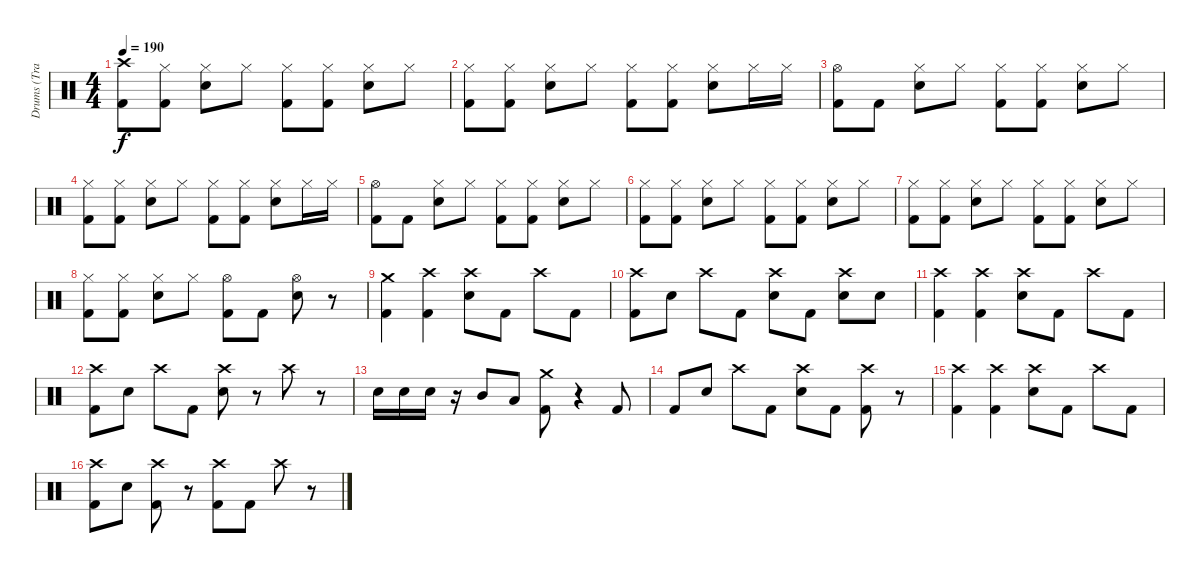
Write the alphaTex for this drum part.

\track ("Drums (Travis)" "Drums (Tra") {instrument percussion}
\staff {score}
\articulation defaults
\ts (4 4)
\tempo 190
\clef neutral
\ks c
("Crash high (hit)" "Kick (hit) 2").8{dy f} ("Hi-Hat (closed)" "Kick (hit) 2").8 ("Hi-Hat (closed)" "Electric Snare (hit)").8 "Hi-Hat (closed)".8 ("Hi-Hat (closed)" "Kick (hit) 2").8 ("Hi-Hat (closed)" "Kick (hit) 2").8 ("Hi-Hat (closed)" "Electric Snare (hit)").8 "Hi-Hat (closed)".8 |
("Hi-Hat (closed)" "Kick (hit) 2").8 ("Hi-Hat (closed)" "Kick (hit) 2").8 ("Hi-Hat (closed)" "Electric Snare (hit)").8 "Hi-Hat (closed)".8 ("Hi-Hat (closed)" "Kick (hit) 2").8 ("Hi-Hat (closed)" "Kick (hit) 2").8 ("Hi-Hat (closed)" "Electric Snare (hit)").8 "Hi-Hat (closed)".16 "Hi-Hat (closed)".16 |
("Hi-Hat (open)" "Kick (hit) 2").8 "Kick (hit) 2".8 ("Hi-Hat (closed)" "Electric Snare (hit)").8 "Hi-Hat (closed)".8 ("Hi-Hat (closed)" "Kick (hit) 2").8 ("Hi-Hat (closed)" "Kick (hit) 2").8 ("Hi-Hat (closed)" "Electric Snare (hit)").8 "Hi-Hat (closed)".8 |
("Hi-Hat (closed)" "Kick (hit) 2").8 ("Hi-Hat (closed)" "Kick (hit) 2").8 ("Hi-Hat (closed)" "Electric Snare (hit)").8 "Hi-Hat (closed)".8 ("Hi-Hat (closed)" "Kick (hit) 2").8 ("Hi-Hat (closed)" "Kick (hit) 2").8 ("Hi-Hat (closed)" "Electric Snare (hit)").8 "Hi-Hat (closed)".16 "Hi-Hat (closed)".16 |
("Hi-Hat (open)" "Kick (hit) 2").8 "Kick (hit) 2".8 ("Hi-Hat (closed)" "Electric Snare (hit)").8 "Hi-Hat (closed)".8 ("Hi-Hat (closed)" "Kick (hit) 2").8 ("Hi-Hat (closed)" "Kick (hit) 2").8 ("Hi-Hat (closed)" "Electric Snare (hit)").8 "Hi-Hat (closed)".8 |
("Hi-Hat (closed)" "Kick (hit) 2").8 ("Hi-Hat (closed)" "Kick (hit) 2").8 ("Hi-Hat (closed)" "Electric Snare (hit)").8 "Hi-Hat (closed)".8 ("Hi-Hat (closed)" "Kick (hit) 2").8 ("Hi-Hat (closed)" "Kick (hit) 2").8 ("Hi-Hat (closed)" "Electric Snare (hit)").8 "Hi-Hat (closed)".8 |
("Hi-Hat (closed)" "Kick (hit) 2").8 ("Hi-Hat (closed)" "Kick (hit) 2").8 ("Hi-Hat (closed)" "Electric Snare (hit)").8 "Hi-Hat (closed)".8 ("Hi-Hat (closed)" "Kick (hit) 2").8 ("Hi-Hat (closed)" "Kick (hit) 2").8 ("Hi-Hat (closed)" "Electric Snare (hit)").8 "Hi-Hat (closed)".8 |
("Hi-Hat (closed)" "Kick (hit) 2").8 ("Hi-Hat (closed)" "Kick (hit) 2").8 ("Hi-Hat (closed)" "Electric Snare (hit)").8 "Hi-Hat (closed)".8 ("Hi-Hat (open)" "Kick (hit) 2").8 "Kick (hit) 2".8 ("Hi-Hat (open)" "Electric Snare (hit)").8 r.8 |
("Crash medium (hit)" "Kick (hit) 2").4 ("Crash high (hit)" "Kick (hit) 2").4 ("Crash high (hit)" "Electric Snare (hit)").8 "Kick (hit) 2".8 "Crash high (hit)".8 "Kick (hit) 2".8 |
("Crash high (hit)" "Kick (hit) 2").8 "Electric Snare (hit)".8 "Crash high (hit)".8 "Kick (hit) 2".8 ("Crash high (hit)" "Electric Snare (hit)").8 "Kick (hit) 2".8 ("Crash high (hit)" "Electric Snare (hit)").8 "Electric Snare (hit)".8 |
("Crash high (hit)" "Kick (hit) 2").4 ("Crash high (hit)" "Kick (hit) 2").4 ("Crash high (hit)" "Electric Snare (hit)").8 "Kick (hit) 2".8 "Crash high (hit)".8 "Kick (hit) 2".8 |
("Crash high (hit)" "Kick (hit) 2").8 "Electric Snare (hit)".8 "Crash high (hit)".8 "Kick (hit) 2".8 ("Crash high (hit)" "Electric Snare (hit)").8 r.8 "Crash high (hit)".8 r.8 |
"Electric Snare (hit)".16 "Electric Snare (hit)".16 "Electric Snare (hit)".16 r.16 "Mid Tom (hit)".8 "Low Tom (hit)".8 ("Crash medium (hit)" "Kick (hit) 2").8 r.4 "Kick (hit) 2".8 |
"Kick (hit) 2".8 "Electric Snare (hit)".8 "Crash high (hit)".8 "Kick (hit) 2".8 ("Crash high (hit)" "Electric Snare (hit)").8 "Kick (hit) 2".8 ("Crash high (hit)" "Kick (hit) 2").8 r.8 |
("Crash high (hit)" "Kick (hit) 2").4 ("Crash high (hit)" "Kick (hit) 2").4 ("Crash high (hit)" "Electric Snare (hit)").8 "Kick (hit) 2".8 "Crash high (hit)".8 "Kick (hit) 2".8 |
("Crash high (hit)" "Kick (hit) 2").8 "Electric Snare (hit)".8 ("Crash high (hit)" "Kick (hit) 2").8 r.8 ("Crash high (hit)" "Kick (hit) 2").8 "Kick (hit) 2".8 "Crash high (hit)".8 r.8
